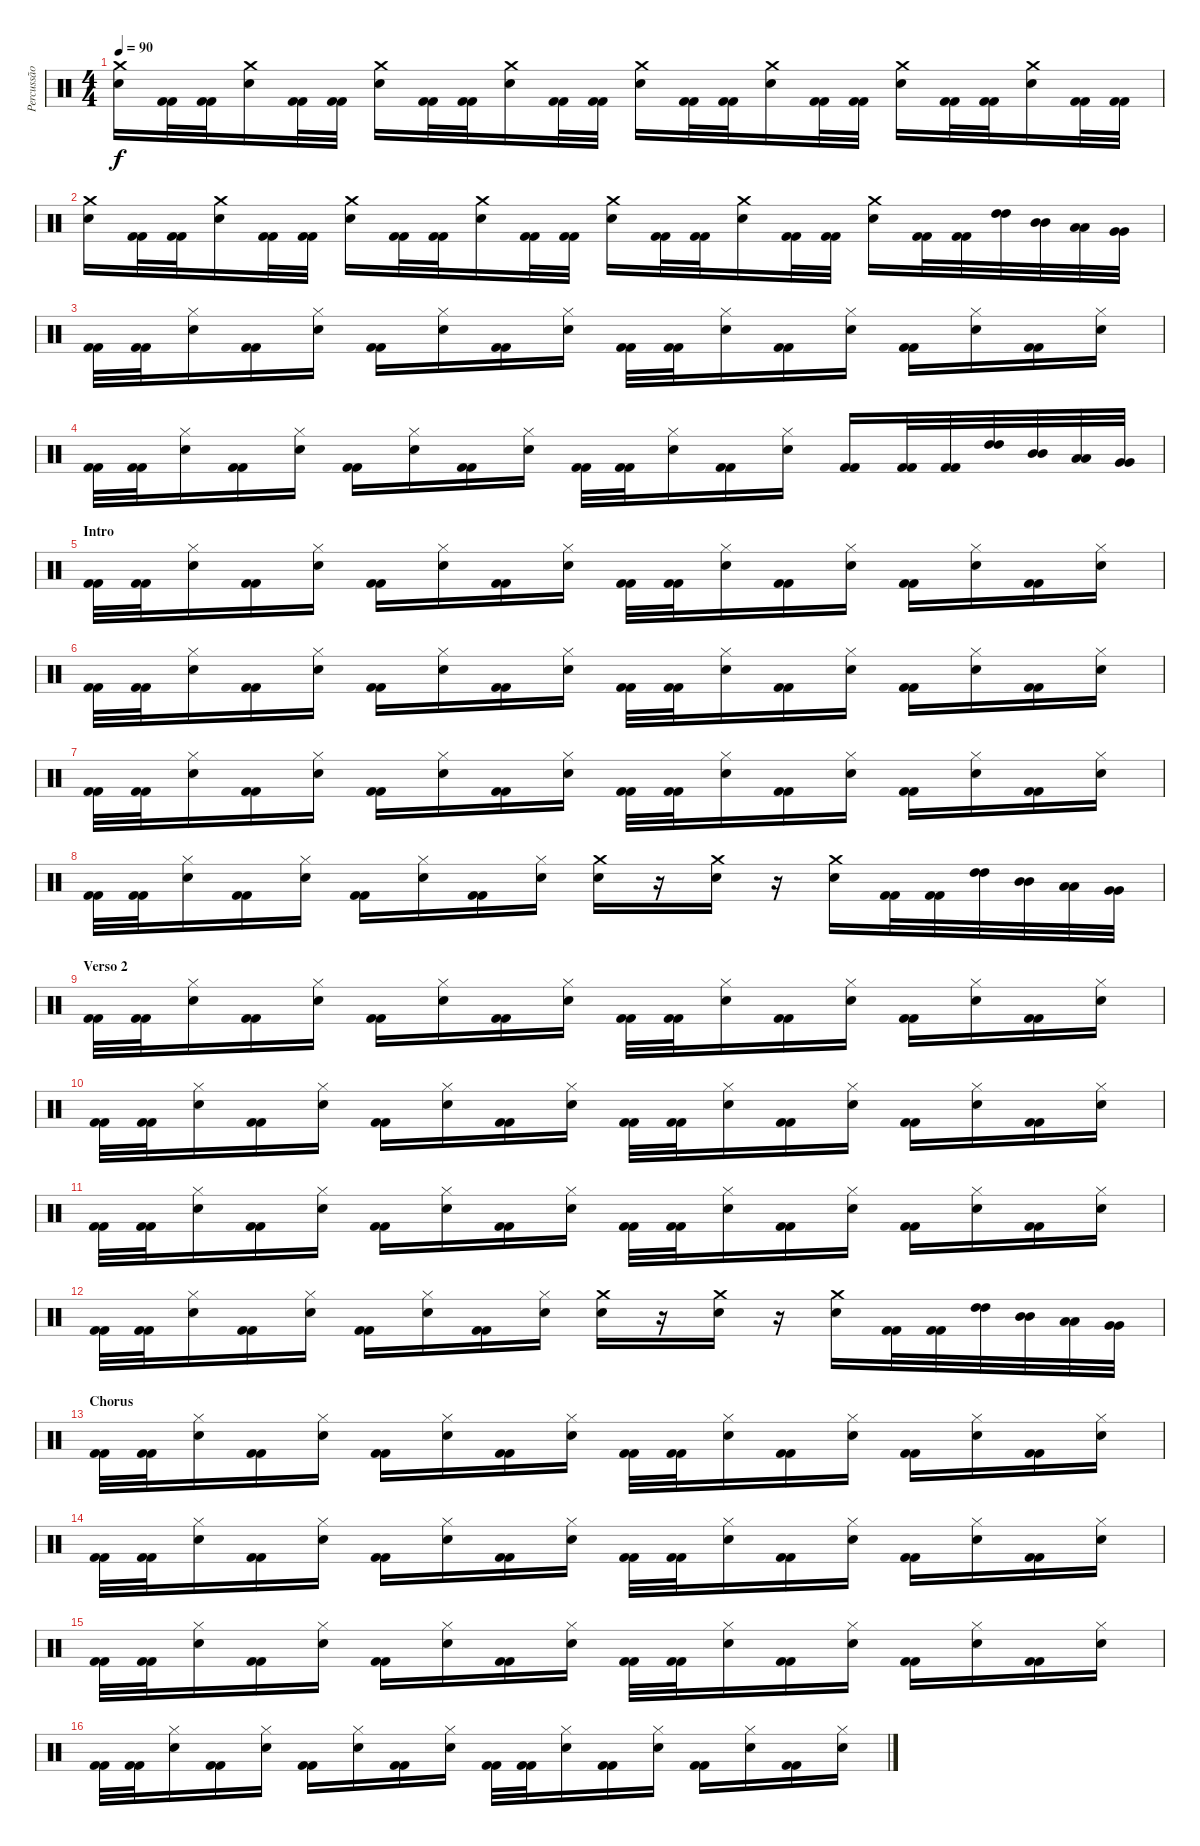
\track ("Percussão" "Percussão") {instrument percussion}
\staff {score}
\articulation defaults
\ts (4 4)
\tempo 90
\clef neutral
\ks c
("Crash medium (hit)" "Snare (hit) 2").16{dy f} ("Kick (hit) 2" "Kick (hit) 2").32 ("Kick (hit) 2" "Kick (hit) 2").32 ("Crash medium (hit)" "Snare (hit) 2").16 ("Kick (hit) 2" "Kick (hit) 2").32 ("Kick (hit) 2" "Kick (hit) 2").32 ("Crash medium (hit)" "Snare (hit) 2").16 ("Kick (hit) 2" "Kick (hit) 2").32 ("Kick (hit) 2" "Kick (hit) 2").32 ("Crash medium (hit)" "Snare (hit) 2").16 ("Kick (hit) 2" "Kick (hit) 2").32 ("Kick (hit) 2" "Kick (hit) 2").32 ("Crash medium (hit)" "Snare (hit) 2").16 ("Kick (hit) 2" "Kick (hit) 2").32 ("Kick (hit) 2" "Kick (hit) 2").32 ("Crash medium (hit)" "Snare (hit) 2").16 ("Kick (hit) 2" "Kick (hit) 2").32 ("Kick (hit) 2" "Kick (hit) 2").32 ("Crash medium (hit)" "Snare (hit) 2").16 ("Kick (hit) 2" "Kick (hit) 2").32 ("Kick (hit) 2" "Kick (hit) 2").32 ("Crash medium (hit)" "Snare (hit) 2").16 ("Kick (hit) 2" "Kick (hit) 2").32 ("Kick (hit) 2" "Kick (hit) 2").32 |
("Crash medium (hit)" "Snare (hit) 2").16 ("Kick (hit) 2" "Kick (hit) 2").32 ("Kick (hit) 2" "Kick (hit) 2").32 ("Crash medium (hit)" "Snare (hit) 2").16 ("Kick (hit) 2" "Kick (hit) 2").32 ("Kick (hit) 2" "Kick (hit) 2").32 ("Crash medium (hit)" "Snare (hit) 2").16 ("Kick (hit) 2" "Kick (hit) 2").32 ("Kick (hit) 2" "Kick (hit) 2").32 ("Crash medium (hit)" "Snare (hit) 2").16 ("Kick (hit) 2" "Kick (hit) 2").32 ("Kick (hit) 2" "Kick (hit) 2").32 ("Crash medium (hit)" "Snare (hit) 2").16 ("Kick (hit) 2" "Kick (hit) 2").32 ("Kick (hit) 2" "Kick (hit) 2").32 ("Crash medium (hit)" "Snare (hit) 2").16 ("Kick (hit) 2" "Kick (hit) 2").32 ("Kick (hit) 2" "Kick (hit) 2").32 ("Crash medium (hit)" "Snare (hit) 2").16 ("Kick (hit) 2" "Kick (hit) 2").32 ("Kick (hit) 2" "Kick (hit) 2").32 ("High Tom (hit)" "High Tom (hit)").32 ("Mid Tom (hit)" "Mid Tom (hit)").32 ("Low Tom (hit)" "Low Tom (hit)").32 ("Very Low Tom (hit)" "Very Low Tom (hit)").32 |
("Kick (hit) 2" "Kick (hit) 2").32 ("Kick (hit) 2" "Kick (hit) 2").32 ("Hi-Hat (closed)" "Snare (hit) 2").16 ("Kick (hit) 2" "Kick (hit) 2").16 ("Hi-Hat (closed)" "Snare (hit) 2").16 ("Kick (hit) 2" "Kick (hit) 2").16 ("Hi-Hat (closed)" "Snare (hit) 2").16 ("Kick (hit) 2" "Kick (hit) 2").16 ("Hi-Hat (closed)" "Snare (hit) 2").16 ("Kick (hit) 2" "Kick (hit) 2").32 ("Kick (hit) 2" "Kick (hit) 2").32 ("Hi-Hat (closed)" "Snare (hit) 2").16 ("Kick (hit) 2" "Kick (hit) 2").16 ("Hi-Hat (closed)" "Snare (hit) 2").16 ("Kick (hit) 2" "Kick (hit) 2").16 ("Hi-Hat (closed)" "Snare (hit) 2").16 ("Kick (hit) 2" "Kick (hit) 2").16 ("Hi-Hat (closed)" "Snare (hit) 2").16 |
("Kick (hit) 2" "Kick (hit) 2").32 ("Kick (hit) 2" "Kick (hit) 2").32 ("Hi-Hat (closed)" "Snare (hit) 2").16 ("Kick (hit) 2" "Kick (hit) 2").16 ("Hi-Hat (closed)" "Snare (hit) 2").16 ("Kick (hit) 2" "Kick (hit) 2").16 ("Hi-Hat (closed)" "Snare (hit) 2").16 ("Kick (hit) 2" "Kick (hit) 2").16 ("Hi-Hat (closed)" "Snare (hit) 2").16 ("Kick (hit) 2" "Kick (hit) 2").32 ("Kick (hit) 2" "Kick (hit) 2").32 ("Hi-Hat (closed)" "Snare (hit) 2").16 ("Kick (hit) 2" "Kick (hit) 2").16 ("Hi-Hat (closed)" "Snare (hit) 2").16 ("Kick (hit) 2" "Kick (hit) 2").16 ("Kick (hit) 2" "Kick (hit) 2").32 ("Kick (hit) 2" "Kick (hit) 2").32 ("High Tom (hit)" "High Tom (hit)").32 ("Mid Tom (hit)" "Mid Tom (hit)").32 ("Low Tom (hit)" "Low Tom (hit)").32 ("Very Low Tom (hit)" "Very Low Tom (hit)").32 |
\section ("" "Intro")
("Kick (hit) 2" "Kick (hit) 2").32 ("Kick (hit) 2" "Kick (hit) 2").32 ("Hi-Hat (closed)" "Snare (hit) 2").16 ("Kick (hit) 2" "Kick (hit) 2").16 ("Hi-Hat (closed)" "Snare (hit) 2").16 ("Kick (hit) 2" "Kick (hit) 2").16 ("Hi-Hat (closed)" "Snare (hit) 2").16 ("Kick (hit) 2" "Kick (hit) 2").16 ("Hi-Hat (closed)" "Snare (hit) 2").16 ("Kick (hit) 2" "Kick (hit) 2").32 ("Kick (hit) 2" "Kick (hit) 2").32 ("Hi-Hat (closed)" "Snare (hit) 2").16 ("Kick (hit) 2" "Kick (hit) 2").16 ("Hi-Hat (closed)" "Snare (hit) 2").16 ("Kick (hit) 2" "Kick (hit) 2").16 ("Hi-Hat (closed)" "Snare (hit) 2").16 ("Kick (hit) 2" "Kick (hit) 2").16 ("Hi-Hat (closed)" "Snare (hit) 2").16 |
("Kick (hit) 2" "Kick (hit) 2").32 ("Kick (hit) 2" "Kick (hit) 2").32 ("Hi-Hat (closed)" "Snare (hit) 2").16 ("Kick (hit) 2" "Kick (hit) 2").16 ("Hi-Hat (closed)" "Snare (hit) 2").16 ("Kick (hit) 2" "Kick (hit) 2").16 ("Hi-Hat (closed)" "Snare (hit) 2").16 ("Kick (hit) 2" "Kick (hit) 2").16 ("Hi-Hat (closed)" "Snare (hit) 2").16 ("Kick (hit) 2" "Kick (hit) 2").32 ("Kick (hit) 2" "Kick (hit) 2").32 ("Hi-Hat (closed)" "Snare (hit) 2").16 ("Kick (hit) 2" "Kick (hit) 2").16 ("Hi-Hat (closed)" "Snare (hit) 2").16 ("Kick (hit) 2" "Kick (hit) 2").16 ("Hi-Hat (closed)" "Snare (hit) 2").16 ("Kick (hit) 2" "Kick (hit) 2").16 ("Hi-Hat (closed)" "Snare (hit) 2").16 |
("Kick (hit) 2" "Kick (hit) 2").32 ("Kick (hit) 2" "Kick (hit) 2").32 ("Hi-Hat (closed)" "Snare (hit) 2").16 ("Kick (hit) 2" "Kick (hit) 2").16 ("Hi-Hat (closed)" "Snare (hit) 2").16 ("Kick (hit) 2" "Kick (hit) 2").16 ("Hi-Hat (closed)" "Snare (hit) 2").16 ("Kick (hit) 2" "Kick (hit) 2").16 ("Hi-Hat (closed)" "Snare (hit) 2").16 ("Kick (hit) 2" "Kick (hit) 2").32 ("Kick (hit) 2" "Kick (hit) 2").32 ("Hi-Hat (closed)" "Snare (hit) 2").16 ("Kick (hit) 2" "Kick (hit) 2").16 ("Hi-Hat (closed)" "Snare (hit) 2").16 ("Kick (hit) 2" "Kick (hit) 2").16 ("Hi-Hat (closed)" "Snare (hit) 2").16 ("Kick (hit) 2" "Kick (hit) 2").16 ("Hi-Hat (closed)" "Snare (hit) 2").16 |
("Kick (hit) 2" "Kick (hit) 2").32 ("Kick (hit) 2" "Kick (hit) 2").32 ("Hi-Hat (closed)" "Snare (hit) 2").16 ("Kick (hit) 2" "Kick (hit) 2").16 ("Hi-Hat (closed)" "Snare (hit) 2").16 ("Kick (hit) 2" "Kick (hit) 2").16 ("Hi-Hat (closed)" "Snare (hit) 2").16 ("Kick (hit) 2" "Kick (hit) 2").16 ("Hi-Hat (closed)" "Snare (hit) 2").16 ("Crash medium (hit)" "Snare (hit) 2").16 r.16 ("Crash medium (hit)" "Snare (hit) 2").16 r.16 ("Crash medium (hit)" "Snare (hit) 2").16 ("Kick (hit) 2" "Kick (hit) 2").32 ("Kick (hit) 2" "Kick (hit) 2").32 ("High Tom (hit)" "High Tom (hit)").32 ("Mid Tom (hit)" "Mid Tom (hit)").32 ("Low Tom (hit)" "Low Tom (hit)").32 ("Very Low Tom (hit)" "Very Low Tom (hit)").32 |
\section ("" "Verso 2")
("Kick (hit) 2" "Kick (hit) 2").32 ("Kick (hit) 2" "Kick (hit) 2").32 ("Hi-Hat (closed)" "Snare (hit) 2").16 ("Kick (hit) 2" "Kick (hit) 2").16 ("Hi-Hat (closed)" "Snare (hit) 2").16 ("Kick (hit) 2" "Kick (hit) 2").16 ("Hi-Hat (closed)" "Snare (hit) 2").16 ("Kick (hit) 2" "Kick (hit) 2").16 ("Hi-Hat (closed)" "Snare (hit) 2").16 ("Kick (hit) 2" "Kick (hit) 2").32 ("Kick (hit) 2" "Kick (hit) 2").32 ("Hi-Hat (closed)" "Snare (hit) 2").16 ("Kick (hit) 2" "Kick (hit) 2").16 ("Hi-Hat (closed)" "Snare (hit) 2").16 ("Kick (hit) 2" "Kick (hit) 2").16 ("Hi-Hat (closed)" "Snare (hit) 2").16 ("Kick (hit) 2" "Kick (hit) 2").16 ("Hi-Hat (closed)" "Snare (hit) 2").16 |
("Kick (hit) 2" "Kick (hit) 2").32 ("Kick (hit) 2" "Kick (hit) 2").32 ("Hi-Hat (closed)" "Snare (hit) 2").16 ("Kick (hit) 2" "Kick (hit) 2").16 ("Hi-Hat (closed)" "Snare (hit) 2").16 ("Kick (hit) 2" "Kick (hit) 2").16 ("Hi-Hat (closed)" "Snare (hit) 2").16 ("Kick (hit) 2" "Kick (hit) 2").16 ("Hi-Hat (closed)" "Snare (hit) 2").16 ("Kick (hit) 2" "Kick (hit) 2").32 ("Kick (hit) 2" "Kick (hit) 2").32 ("Hi-Hat (closed)" "Snare (hit) 2").16 ("Kick (hit) 2" "Kick (hit) 2").16 ("Hi-Hat (closed)" "Snare (hit) 2").16 ("Kick (hit) 2" "Kick (hit) 2").16 ("Hi-Hat (closed)" "Snare (hit) 2").16 ("Kick (hit) 2" "Kick (hit) 2").16 ("Hi-Hat (closed)" "Snare (hit) 2").16 |
("Kick (hit) 2" "Kick (hit) 2").32 ("Kick (hit) 2" "Kick (hit) 2").32 ("Hi-Hat (closed)" "Snare (hit) 2").16 ("Kick (hit) 2" "Kick (hit) 2").16 ("Hi-Hat (closed)" "Snare (hit) 2").16 ("Kick (hit) 2" "Kick (hit) 2").16 ("Hi-Hat (closed)" "Snare (hit) 2").16 ("Kick (hit) 2" "Kick (hit) 2").16 ("Hi-Hat (closed)" "Snare (hit) 2").16 ("Kick (hit) 2" "Kick (hit) 2").32 ("Kick (hit) 2" "Kick (hit) 2").32 ("Hi-Hat (closed)" "Snare (hit) 2").16 ("Kick (hit) 2" "Kick (hit) 2").16 ("Hi-Hat (closed)" "Snare (hit) 2").16 ("Kick (hit) 2" "Kick (hit) 2").16 ("Hi-Hat (closed)" "Snare (hit) 2").16 ("Kick (hit) 2" "Kick (hit) 2").16 ("Hi-Hat (closed)" "Snare (hit) 2").16 |
("Kick (hit) 2" "Kick (hit) 2").32 ("Kick (hit) 2" "Kick (hit) 2").32 ("Hi-Hat (closed)" "Snare (hit) 2").16 ("Kick (hit) 2" "Kick (hit) 2").16 ("Hi-Hat (closed)" "Snare (hit) 2").16 ("Kick (hit) 2" "Kick (hit) 2").16 ("Hi-Hat (closed)" "Snare (hit) 2").16 ("Kick (hit) 2" "Kick (hit) 2").16 ("Hi-Hat (closed)" "Snare (hit) 2").16 ("Crash medium (hit)" "Snare (hit) 2").16 r.16 ("Crash medium (hit)" "Snare (hit) 2").16 r.16 ("Crash medium (hit)" "Snare (hit) 2").16 ("Kick (hit) 2" "Kick (hit) 2").32 ("Kick (hit) 2" "Kick (hit) 2").32 ("High Tom (hit)" "High Tom (hit)").32 ("Mid Tom (hit)" "Mid Tom (hit)").32 ("Low Tom (hit)" "Low Tom (hit)").32 ("Very Low Tom (hit)" "Very Low Tom (hit)").32 |
\section ("" "Chorus")
("Kick (hit) 2" "Kick (hit) 2").32 ("Kick (hit) 2" "Kick (hit) 2").32 ("Hi-Hat (closed)" "Snare (hit) 2").16 ("Kick (hit) 2" "Kick (hit) 2").16 ("Hi-Hat (closed)" "Snare (hit) 2").16 ("Kick (hit) 2" "Kick (hit) 2").16 ("Hi-Hat (closed)" "Snare (hit) 2").16 ("Kick (hit) 2" "Kick (hit) 2").16 ("Hi-Hat (closed)" "Snare (hit) 2").16 ("Kick (hit) 2" "Kick (hit) 2").32 ("Kick (hit) 2" "Kick (hit) 2").32 ("Hi-Hat (closed)" "Snare (hit) 2").16 ("Kick (hit) 2" "Kick (hit) 2").16 ("Hi-Hat (closed)" "Snare (hit) 2").16 ("Kick (hit) 2" "Kick (hit) 2").16 ("Hi-Hat (closed)" "Snare (hit) 2").16 ("Kick (hit) 2" "Kick (hit) 2").16 ("Hi-Hat (closed)" "Snare (hit) 2").16 |
("Kick (hit) 2" "Kick (hit) 2").32 ("Kick (hit) 2" "Kick (hit) 2").32 ("Hi-Hat (closed)" "Snare (hit) 2").16 ("Kick (hit) 2" "Kick (hit) 2").16 ("Hi-Hat (closed)" "Snare (hit) 2").16 ("Kick (hit) 2" "Kick (hit) 2").16 ("Hi-Hat (closed)" "Snare (hit) 2").16 ("Kick (hit) 2" "Kick (hit) 2").16 ("Hi-Hat (closed)" "Snare (hit) 2").16 ("Kick (hit) 2" "Kick (hit) 2").32 ("Kick (hit) 2" "Kick (hit) 2").32 ("Hi-Hat (closed)" "Snare (hit) 2").16 ("Kick (hit) 2" "Kick (hit) 2").16 ("Hi-Hat (closed)" "Snare (hit) 2").16 ("Kick (hit) 2" "Kick (hit) 2").16 ("Hi-Hat (closed)" "Snare (hit) 2").16 ("Kick (hit) 2" "Kick (hit) 2").16 ("Hi-Hat (closed)" "Snare (hit) 2").16 |
("Kick (hit) 2" "Kick (hit) 2").32 ("Kick (hit) 2" "Kick (hit) 2").32 ("Hi-Hat (closed)" "Snare (hit) 2").16 ("Kick (hit) 2" "Kick (hit) 2").16 ("Hi-Hat (closed)" "Snare (hit) 2").16 ("Kick (hit) 2" "Kick (hit) 2").16 ("Hi-Hat (closed)" "Snare (hit) 2").16 ("Kick (hit) 2" "Kick (hit) 2").16 ("Hi-Hat (closed)" "Snare (hit) 2").16 ("Kick (hit) 2" "Kick (hit) 2").32 ("Kick (hit) 2" "Kick (hit) 2").32 ("Hi-Hat (closed)" "Snare (hit) 2").16 ("Kick (hit) 2" "Kick (hit) 2").16 ("Hi-Hat (closed)" "Snare (hit) 2").16 ("Kick (hit) 2" "Kick (hit) 2").16 ("Hi-Hat (closed)" "Snare (hit) 2").16 ("Kick (hit) 2" "Kick (hit) 2").16 ("Hi-Hat (closed)" "Snare (hit) 2").16 |
("Kick (hit) 2" "Kick (hit) 2").32 ("Kick (hit) 2" "Kick (hit) 2").32 ("Hi-Hat (closed)" "Snare (hit) 2").16 ("Kick (hit) 2" "Kick (hit) 2").16 ("Hi-Hat (closed)" "Snare (hit) 2").16 ("Kick (hit) 2" "Kick (hit) 2").16 ("Hi-Hat (closed)" "Snare (hit) 2").16 ("Kick (hit) 2" "Kick (hit) 2").16 ("Hi-Hat (closed)" "Snare (hit) 2").16 ("Kick (hit) 2" "Kick (hit) 2").32 ("Kick (hit) 2" "Kick (hit) 2").32 ("Hi-Hat (closed)" "Snare (hit) 2").16 ("Kick (hit) 2" "Kick (hit) 2").16 ("Hi-Hat (closed)" "Snare (hit) 2").16 ("Kick (hit) 2" "Kick (hit) 2").16 ("Hi-Hat (closed)" "Snare (hit) 2").16 ("Kick (hit) 2" "Kick (hit) 2").16 ("Hi-Hat (closed)" "Snare (hit) 2").16
